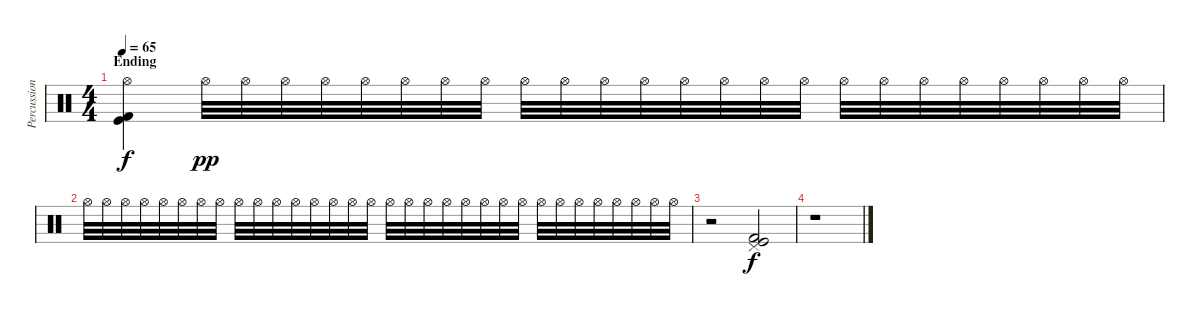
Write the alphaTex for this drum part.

\track ("Percussion" "Percussion") {instrument percussion}
\staff {score}
\articulation defaults
\ts (4 4)
\section ("" "Ending")
\tempo 65
\clef neutral
\ks c
("Hi-Hat (open)" "Kick (hit)" "Kick (hit) 2").4{dy f balance 8} "Hi-Hat (open)".32{dy pp} "Hi-Hat (open)".32 "Hi-Hat (open)".32 "Hi-Hat (open)".32 "Hi-Hat (open)".32 "Hi-Hat (open)".32 "Hi-Hat (open)".32 "Hi-Hat (open)".32 "Hi-Hat (open)".32 "Hi-Hat (open)".32 "Hi-Hat (open)".32 "Hi-Hat (open)".32 "Hi-Hat (open)".32 "Hi-Hat (open)".32 "Hi-Hat (open)".32 "Hi-Hat (open)".32 "Hi-Hat (open)".32 "Hi-Hat (open)".32 "Hi-Hat (open)".32 "Hi-Hat (open)".32 "Hi-Hat (open)".32 "Hi-Hat (open)".32 "Hi-Hat (open)".32 "Hi-Hat (open)".32 |
"Hi-Hat (open)".32 "Hi-Hat (open)".32 "Hi-Hat (open)".32 "Hi-Hat (open)".32 "Hi-Hat (open)".32 "Hi-Hat (open)".32 "Hi-Hat (open)".32 "Hi-Hat (open)".32 "Hi-Hat (open)".32 "Hi-Hat (open)".32 "Hi-Hat (open)".32 "Hi-Hat (open)".32 "Hi-Hat (open)".32 "Hi-Hat (open)".32 "Hi-Hat (open)".32 "Hi-Hat (open)".32 "Hi-Hat (open)".32 "Hi-Hat (open)".32 "Hi-Hat (open)".32 "Hi-Hat (open)".32 "Hi-Hat (open)".32 "Hi-Hat (open)".32 "Hi-Hat (open)".32 "Hi-Hat (open)".32 "Hi-Hat (open)".32 "Hi-Hat (open)".32 "Hi-Hat (open)".32 "Hi-Hat (open)".32 "Hi-Hat (open)".32 "Hi-Hat (open)".32 "Hi-Hat (open)".32 "Hi-Hat (open)".32 |
r.2 ("Pedal Hi-Hat (hit)" "Kick (hit)" "Kick (hit) 2").2{dy f} |
r.1
